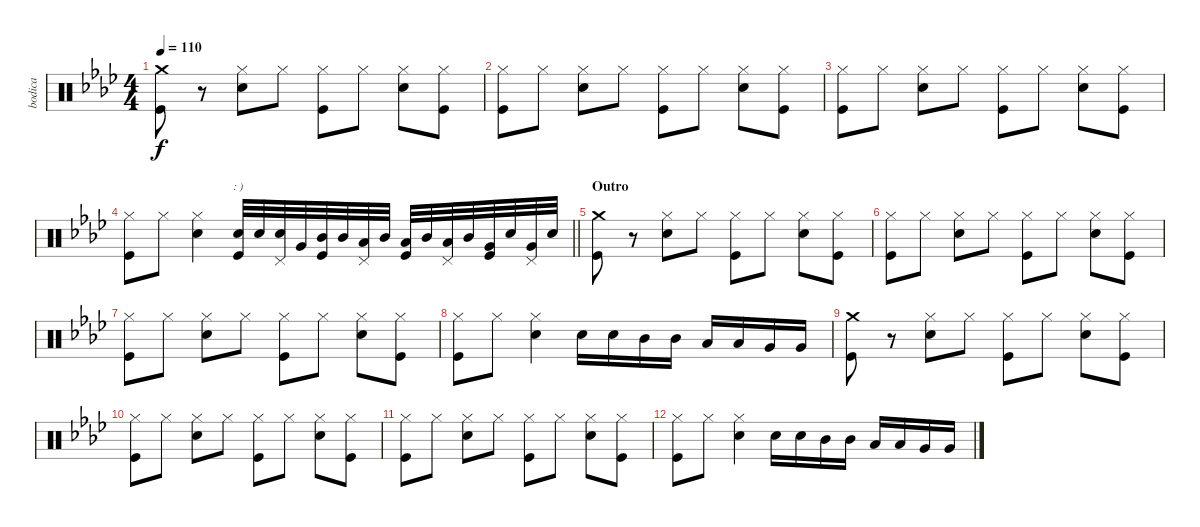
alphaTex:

\track ("bodica" "bodica") {instrument percussion}
\staff {score}
\articulation defaults
\chord (": )") {firstfret 0}
\ts (4 4)
\tempo 110
\clef neutral
\ks fminor
("Crash medium (hit)" "Kick (hit)").8{dy f} r.8 ("Hi-Hat (closed)" "Snare (hit) 2").8 "Hi-Hat (closed)".8 ("Hi-Hat (closed)" "Kick (hit)").8 "Hi-Hat (closed)".8 ("Hi-Hat (closed)" "Snare (hit) 2").8 ("Hi-Hat (closed)" "Kick (hit)").8 |
("Hi-Hat (closed)" "Kick (hit)").8 "Hi-Hat (closed)".8 ("Hi-Hat (closed)" "Snare (hit) 2").8 "Hi-Hat (closed)".8 ("Hi-Hat (closed)" "Kick (hit)").8 "Hi-Hat (closed)".8 ("Hi-Hat (closed)" "Snare (hit) 2").8 ("Hi-Hat (closed)" "Kick (hit)").8 |
("Hi-Hat (closed)" "Kick (hit)").8 "Hi-Hat (closed)".8 ("Hi-Hat (closed)" "Snare (hit) 2").8 "Hi-Hat (closed)".8 ("Hi-Hat (closed)" "Kick (hit)").8 "Hi-Hat (closed)".8 ("Hi-Hat (closed)" "Snare (hit) 2").8 ("Hi-Hat (closed)" "Kick (hit)").8 |
\barLineRight lightlight
("Hi-Hat (closed)" "Kick (hit)").8 "Hi-Hat (closed)".8 ("Hi-Hat (closed)" "Snare (hit) 2").4 ("Snare (hit) 2" "Kick (hit)").32{ch ": )"} "Snare (hit) 2".32 ("Pedal Hi-Hat (hit)" "Snare (hit) 2").32 "Very Low Tom (hit)".32 ("Mid Tom (hit)" "Kick (hit)").32 "Mid Tom (hit)".32 ("Pedal Hi-Hat (hit)" "Low Tom (hit)").32 "Mid Tom (hit)".32 ("Low Tom (hit)" "Kick (hit)").32 "Mid Tom (hit)".32 ("Pedal Hi-Hat (hit)" "Low Tom (hit)").32 "Mid Tom (hit)".32 ("Very Low Tom (hit)" "Kick (hit)").32 "Snare (hit) 2".32 ("Pedal Hi-Hat (hit)" "Very Low Tom (hit)").32 "Snare (hit) 2".32 |
\section ("" "Outro")
("Crash medium (hit)" "Kick (hit)").8 r.8 ("Hi-Hat (closed)" "Snare (hit) 2").8 "Hi-Hat (closed)".8 ("Hi-Hat (closed)" "Kick (hit)").8 "Hi-Hat (closed)".8 ("Hi-Hat (closed)" "Snare (hit) 2").8 ("Hi-Hat (closed)" "Kick (hit)").8 |
("Hi-Hat (closed)" "Kick (hit)").8 "Hi-Hat (closed)".8 ("Hi-Hat (closed)" "Snare (hit) 2").8 "Hi-Hat (closed)".8 ("Hi-Hat (closed)" "Kick (hit)").8 "Hi-Hat (closed)".8 ("Hi-Hat (closed)" "Snare (hit) 2").8 ("Hi-Hat (closed)" "Kick (hit)").8 |
("Hi-Hat (closed)" "Kick (hit)").8 "Hi-Hat (closed)".8 ("Hi-Hat (closed)" "Snare (hit) 2").8 "Hi-Hat (closed)".8 ("Hi-Hat (closed)" "Kick (hit)").8 "Hi-Hat (closed)".8 ("Hi-Hat (closed)" "Snare (hit) 2").8 ("Hi-Hat (closed)" "Kick (hit)").8 |
("Hi-Hat (closed)" "Kick (hit)").8 "Hi-Hat (closed)".8 ("Hi-Hat (closed)" "Snare (hit) 2").4 "Snare (hit) 2".16 "Snare (hit) 2".16 "Mid Tom (hit)".16 "Mid Tom (hit)".16 "Low Tom (hit)".16 "Low Tom (hit)".16 "Very Low Tom (hit)".16 "Very Low Tom (hit)".16 |
("Crash medium (hit)" "Kick (hit)").8 r.8 ("Hi-Hat (closed)" "Snare (hit) 2").8 "Hi-Hat (closed)".8 ("Hi-Hat (closed)" "Kick (hit)").8 "Hi-Hat (closed)".8 ("Hi-Hat (closed)" "Snare (hit) 2").8 ("Hi-Hat (closed)" "Kick (hit)").8 |
("Hi-Hat (closed)" "Kick (hit)").8 "Hi-Hat (closed)".8 ("Hi-Hat (closed)" "Snare (hit) 2").8 "Hi-Hat (closed)".8 ("Hi-Hat (closed)" "Kick (hit)").8 "Hi-Hat (closed)".8 ("Hi-Hat (closed)" "Snare (hit) 2").8 ("Hi-Hat (closed)" "Kick (hit)").8 |
("Hi-Hat (closed)" "Kick (hit)").8 "Hi-Hat (closed)".8 ("Hi-Hat (closed)" "Snare (hit) 2").8 "Hi-Hat (closed)".8 ("Hi-Hat (closed)" "Kick (hit)").8 "Hi-Hat (closed)".8 ("Hi-Hat (closed)" "Snare (hit) 2").8 ("Hi-Hat (closed)" "Kick (hit)").8 |
("Hi-Hat (closed)" "Kick (hit)").8 "Hi-Hat (closed)".8 ("Hi-Hat (closed)" "Snare (hit) 2").4 "Snare (hit) 2".16 "Snare (hit) 2".16 "Mid Tom (hit)".16 "Mid Tom (hit)".16 "Low Tom (hit)".16 "Low Tom (hit)".16 "Very Low Tom (hit)".16 "Very Low Tom (hit)".16
